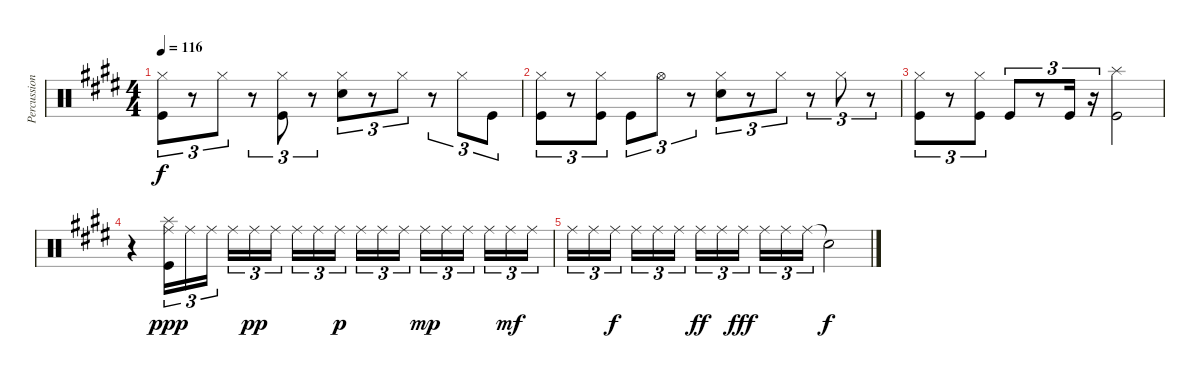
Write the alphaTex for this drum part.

\track ("Percussion" "Percussion") {instrument percussion}
\staff {score}
\articulation defaults
\ts (4 4)
\tempo 116
\clef neutral
\ks c#minor
("Hi-Hat (closed)" "Kick (hit)").8{tu (3 2) dy f} r.8{tu (3 2)} "Hi-Hat (closed)".8{tu (3 2)} r.8{tu (3 2)} ("Hi-Hat (closed)" "Kick (hit)").8{tu (3 2)} r.8{tu (3 2)} ("Snare (hit) 2" "Hi-Hat (closed)").8{tu (3 2)} r.8{tu (3 2)} "Hi-Hat (closed)".8{tu (3 2)} r.8{tu (3 2)} "Hi-Hat (closed)".8{tu (3 2)} "Kick (hit)".8{tu (3 2)} |
("Hi-Hat (closed)" "Kick (hit)").8{tu (3 2)} r.8{tu (3 2)} ("Hi-Hat (closed)" "Kick (hit)").8{tu (3 2)} "Kick (hit)".8{tu (3 2)} "Hi-Hat (open)".8{tu (3 2)} r.8{tu (3 2)} ("Snare (hit) 2" "Hi-Hat (closed)").8{tu (3 2)} r.8{tu (3 2)} "Hi-Hat (closed)".8{tu (3 2)} r.8{tu (3 2)} "Hi-Hat (closed)".8{tu (3 2)} r.8{tu (3 2)} |
("Hi-Hat (closed)" "Kick (hit)").8{tu (3 2)} r.8{tu (3 2)} ("Hi-Hat (closed)" "Kick (hit)").8{tu (3 2)} "Kick (hit)".8{tu (3 2)} r.8{tu (3 2)} "Kick (hit)".16{tu (3 2)} r.16{tu (3 2)} ("Splash (hit)" "Kick (hit)").2 |
r.4 ("Ride (middle)" "Splash (hit)" "Kick (hit)").16{tu (3 2) dy ppp} "Ride (middle)".16{tu (3 2)} "Ride (middle)".16{tu (3 2) beam splitsecondary} "Ride (middle)".16{tu (3 2)} "Ride (middle)".16{tu (3 2) dy pp} "Ride (middle)".16{tu (3 2)} "Ride (middle)".16{tu (3 2)} "Ride (middle)".16{tu (3 2)} "Ride (middle)".16{tu (3 2) dy p beam splitsecondary} "Ride (middle)".16{tu (3 2)} "Ride (middle)".16{tu (3 2)} "Ride (middle)".16{tu (3 2)} "Ride (middle)".16{tu (3 2) dy mp} "Ride (middle)".16{tu (3 2)} "Ride (middle)".16{tu (3 2) beam splitsecondary} "Ride (middle)".16{tu (3 2)} "Ride (middle)".16{tu (3 2) dy mf} "Ride (middle)".16{tu (3 2)} |
"Ride (middle)".16{tu (3 2)} "Ride (middle)".16{tu (3 2)} "Ride (middle)".16{tu (3 2) dy f beam splitsecondary} "Ride (middle)".16{tu (3 2)} "Ride (middle)".16{tu (3 2)} "Ride (middle)".16{tu (3 2)} "Ride (middle)".16{tu (3 2) dy ff} "Ride (middle)".16{tu (3 2)} "Ride (middle)".16{tu (3 2) dy fff beam splitsecondary} "Ride (middle)".16{tu (3 2)} "Ride (middle)".16{tu (3 2)} "Ride (middle)".16{tu (3 2)} "Snare (hit)"{t}.2{dy f}
